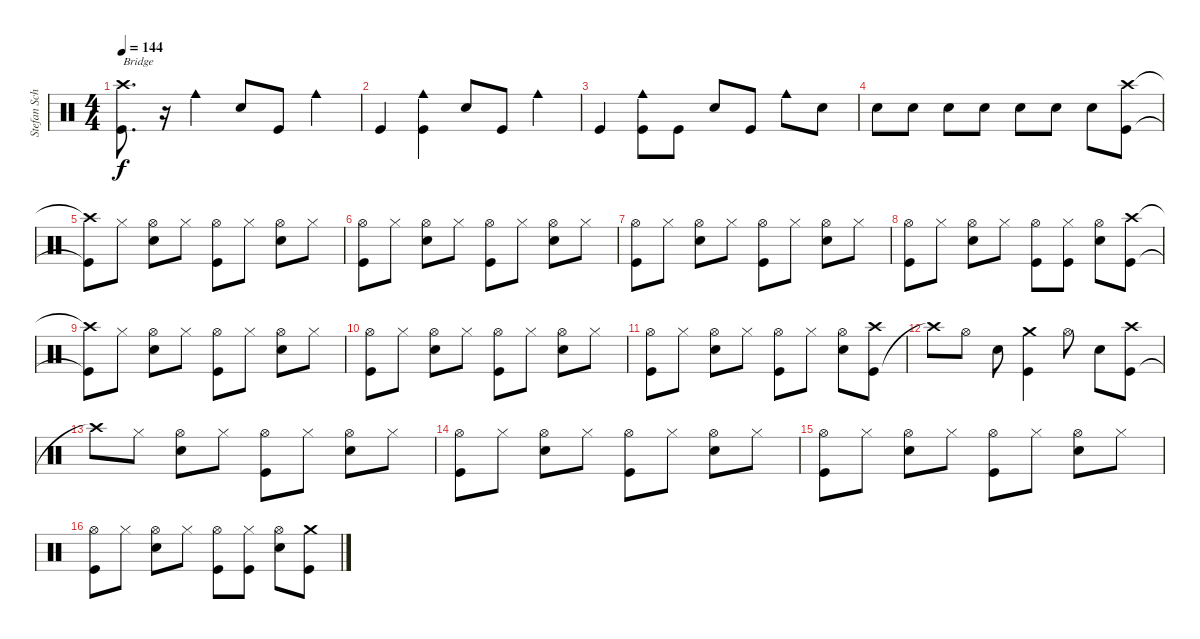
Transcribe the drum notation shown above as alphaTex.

\track ("Stefan Schwarzmann" "Stefan Sch") {instrument percussion}
\staff {score}
\articulation defaults
\ts (4 4)
\tempo 144
\clef neutral
\ks c
("Kick (hit)" "Crash high (hit)").8{d txt "Bridge" dy f} r.16 "Cowbell medium (hit)".4 "Snare (hit) 2".8 "Kick (hit)".8 "Cowbell medium (hit)".4 |
"Kick (hit)".4 ("Kick (hit)" "Cowbell medium (hit)").4 "Snare (hit) 2".8 "Kick (hit)".8 "Cowbell medium (hit)".4 |
"Kick (hit)".4 ("Kick (hit)" "Cowbell medium (hit)").8 "Kick (hit)".8 "Snare (hit) 2".8 "Kick (hit)".8 "Cowbell medium (hit)".8 "Snare (hit) 2".8 |
"Snare (hit) 2".8 "Snare (hit) 2".8 "Snare (hit) 2".8 "Snare (hit) 2".8 "Snare (hit) 2".8 "Snare (hit) 2".8 "Snare (hit) 2".8 ("Kick (hit)" "Crash high (hit)").8 |
("Kick (hit)"{t} "Crash high (hit)"{t}).8 "Hi-Hat (closed)".8 ("Snare (hit) 2" "Hi-Hat (open)").8 "Hi-Hat (closed)".8 ("Kick (hit)" "Hi-Hat (open)").8 "Hi-Hat (closed)".8 ("Snare (hit) 2" "Hi-Hat (open)").8 "Hi-Hat (closed)".8 |
("Kick (hit)" "Hi-Hat (open)").8 "Hi-Hat (closed)".8 ("Snare (hit) 2" "Hi-Hat (open)").8 "Hi-Hat (closed)".8 ("Kick (hit)" "Hi-Hat (open)").8 "Hi-Hat (closed)".8 ("Snare (hit) 2" "Hi-Hat (open)").8 "Hi-Hat (closed)".8 |
("Kick (hit)" "Hi-Hat (open)").8 "Hi-Hat (closed)".8 ("Snare (hit) 2" "Hi-Hat (open)").8 "Hi-Hat (closed)".8 ("Kick (hit)" "Hi-Hat (open)").8 "Hi-Hat (closed)".8 ("Snare (hit) 2" "Hi-Hat (open)").8 "Hi-Hat (closed)".8 |
("Kick (hit)" "Hi-Hat (open)").8 "Hi-Hat (closed)".8 ("Snare (hit) 2" "Hi-Hat (open)").8 "Hi-Hat (closed)".8 ("Kick (hit)" "Hi-Hat (open)").8 ("Kick (hit)" "Hi-Hat (closed)").8 ("Snare (hit) 2" "Hi-Hat (open)").8 ("Kick (hit)" "Crash high (hit)").8 |
("Kick (hit)"{t} "Crash high (hit)"{t}).8 "Hi-Hat (closed)".8 ("Snare (hit) 2" "Hi-Hat (open)").8 "Hi-Hat (closed)".8 ("Kick (hit)" "Hi-Hat (open)").8 "Hi-Hat (closed)".8 ("Snare (hit) 2" "Hi-Hat (open)").8 "Hi-Hat (closed)".8 |
("Kick (hit)" "Hi-Hat (open)").8 "Hi-Hat (closed)".8 ("Snare (hit) 2" "Hi-Hat (open)").8 "Hi-Hat (closed)".8 ("Kick (hit)" "Hi-Hat (open)").8 "Hi-Hat (closed)".8 ("Snare (hit) 2" "Hi-Hat (open)").8 "Hi-Hat (closed)".8 |
("Kick (hit)" "Hi-Hat (open)").8 "Hi-Hat (closed)".8 ("Snare (hit) 2" "Hi-Hat (open)").8 "Hi-Hat (closed)".8 ("Kick (hit)" "Hi-Hat (open)").8 "Hi-Hat (closed)".8 ("Snare (hit) 2" "Hi-Hat (open)").8 ("Kick (hit)" "Crash high (hit)").8 |
"Crash high (hit)"{t}.8 "Hi-Hat (open)".8 "Snare (hit) 2".8 ("Crash medium (hit)" "Kick (hit)").4 "Hi-Hat (open)".8 "Snare (hit) 2".8 ("Kick (hit)" "Crash high (hit)").8 |
"Crash high (hit)"{t}.8 "Hi-Hat (closed)".8 ("Snare (hit) 2" "Hi-Hat (open)").8 "Hi-Hat (closed)".8 ("Kick (hit)" "Hi-Hat (open)").8 "Hi-Hat (closed)".8 ("Snare (hit) 2" "Hi-Hat (open)").8 "Hi-Hat (closed)".8 |
("Kick (hit)" "Hi-Hat (open)").8 "Hi-Hat (closed)".8 ("Snare (hit) 2" "Hi-Hat (open)").8 "Hi-Hat (closed)".8 ("Kick (hit)" "Hi-Hat (open)").8 "Hi-Hat (closed)".8 ("Snare (hit) 2" "Hi-Hat (open)").8 "Hi-Hat (closed)".8 |
("Kick (hit)" "Hi-Hat (open)").8 "Hi-Hat (closed)".8 ("Snare (hit) 2" "Hi-Hat (open)").8 "Hi-Hat (closed)".8 ("Kick (hit)" "Hi-Hat (open)").8 "Hi-Hat (closed)".8 ("Snare (hit) 2" "Hi-Hat (open)").8 "Hi-Hat (closed)".8 |
("Kick (hit)" "Hi-Hat (open)").8 "Hi-Hat (closed)".8 ("Snare (hit) 2" "Hi-Hat (open)").8 "Hi-Hat (closed)".8 ("Kick (hit)" "Hi-Hat (open)").8 ("Kick (hit)" "Hi-Hat (closed)").8 ("Snare (hit) 2" "Hi-Hat (open)").8 ("Crash medium (hit)" "Kick (hit)").8
